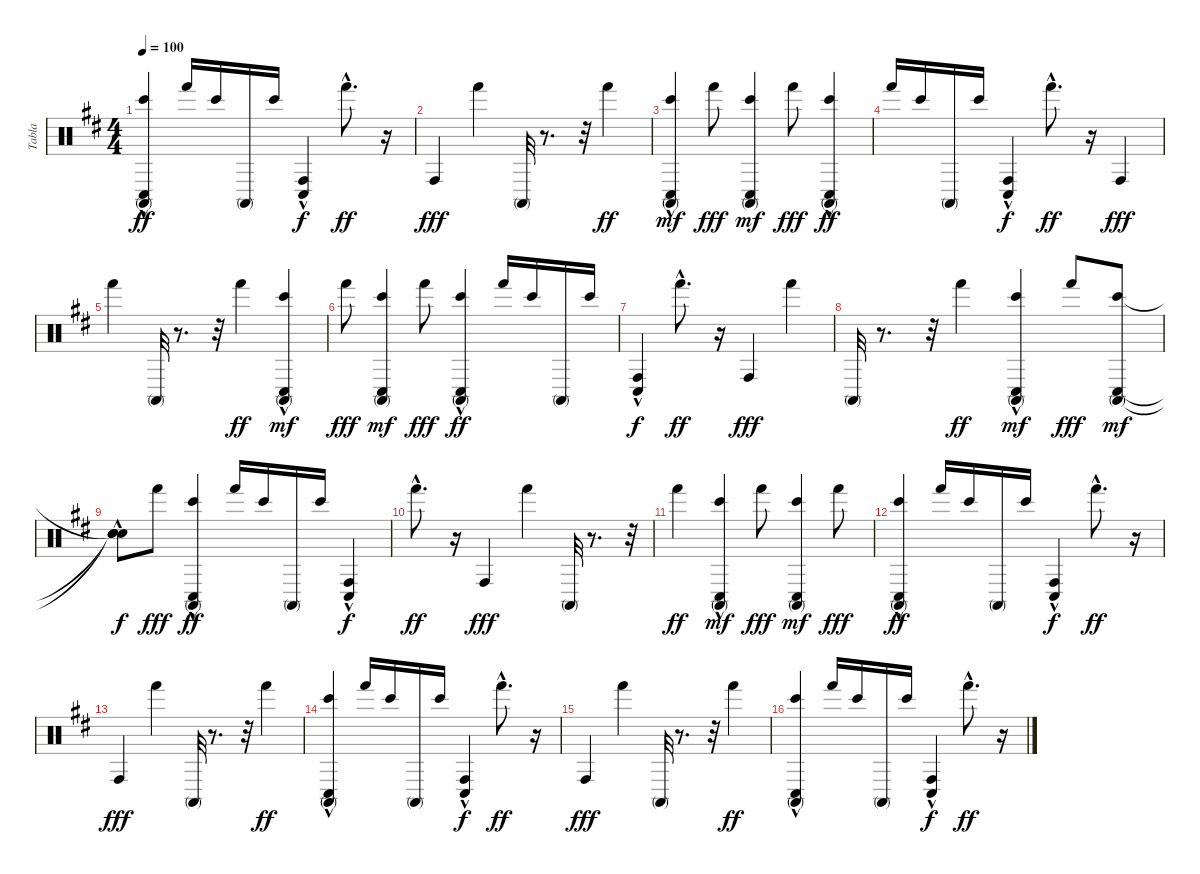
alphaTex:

\track ("Tabla" "Tabla") {instrument percussion}
\staff {score}
\articulation defaults
\ts (4 4)
\tempo 100
\clef neutral
\ks d
("Conga high (mute)" "Bongo High (hit)" "Conga low (hit)"{hac}).4{dy ff} "Hand (hit)".16 "Bongo High (hit)".16 "Conga high (mute)".16 "Bongo High (hit)".16 ("Conga low (hit)"{hac} "Conga high (hit)"{hac}).4{dy f} "Hand (hit)"{hac}.8{d dy ff} r.16 |
"Conga high (hit)".4{dy fff} "Hand (hit)".4 "Conga high (mute)".32 r.8{d} r.32 "Hand (hit)".4{dy ff} |
("Conga low (hit)"{hac} "Conga high (mute)" "Bongo High (hit)").4{dy mf} "Hand (hit)".8{dy fff} ("Conga low (hit)" "Conga high (mute)" "Bongo High (hit)").4{dy mf} "Hand (hit)".8{dy fff} ("Conga high (mute)" "Bongo High (hit)" "Conga low (hit)"{hac}).4{dy ff} |
"Hand (hit)".16 "Bongo High (hit)".16 "Conga high (mute)".16 "Bongo High (hit)".16 ("Conga low (hit)"{hac} "Conga high (hit)"{hac}).4{dy f} "Hand (hit)"{hac}.8{d dy ff} r.16 "Conga high (hit)".4{dy fff} |
"Hand (hit)".4 "Conga high (mute)".32 r.8{d} r.32 "Hand (hit)".4{dy ff} ("Conga low (hit)"{hac} "Conga high (mute)" "Bongo High (hit)").4{dy mf} |
"Hand (hit)".8{dy fff} ("Conga low (hit)" "Conga high (mute)" "Bongo High (hit)").4{dy mf} "Hand (hit)".8{dy fff} ("Conga high (mute)" "Bongo High (hit)" "Conga low (hit)"{hac}).4{dy ff} "Hand (hit)".16 "Bongo High (hit)".16 "Conga high (mute)".16 "Bongo High (hit)".16 |
("Conga low (hit)"{hac} "Conga high (hit)"{hac}).4{dy f} "Hand (hit)"{hac}.8{d dy ff} r.16 "Conga high (hit)".4{dy fff} "Hand (hit)".4 |
"Conga high (mute)".32 r.8{d} r.32 "Hand (hit)".4{dy ff} ("Conga low (hit)"{hac} "Conga high (mute)" "Bongo High (hit)").4{dy mf} "Hand (hit)".8{dy fff} ("Conga low (hit)" "Conga high (mute)" "Bongo High (hit)").8{dy mf} |
("Snare (hit)"{hac t} "Snare (hit)"{t} "Snare (hit)"{t}).8{dy f} "Hand (hit)".8{dy fff} ("Conga high (mute)" "Bongo High (hit)" "Conga low (hit)"{hac}).4{dy ff} "Hand (hit)".16 "Bongo High (hit)".16 "Conga high (mute)".16 "Bongo High (hit)".16 ("Conga low (hit)"{hac} "Conga high (hit)"{hac}).4{dy f} |
"Hand (hit)"{hac}.8{d dy ff} r.16 "Conga high (hit)".4{dy fff} "Hand (hit)".4 "Conga high (mute)".32 r.8{d} r.32 |
"Hand (hit)".4{dy ff} ("Conga low (hit)"{hac} "Conga high (mute)" "Bongo High (hit)").4{dy mf} "Hand (hit)".8{dy fff} ("Conga low (hit)" "Conga high (mute)" "Bongo High (hit)").4{dy mf} "Hand (hit)".8{dy fff} |
("Conga high (mute)" "Bongo High (hit)" "Conga low (hit)"{hac}).4{dy ff} "Hand (hit)".16 "Bongo High (hit)".16 "Conga high (mute)".16 "Bongo High (hit)".16 ("Conga low (hit)"{hac} "Conga high (hit)"{hac}).4{dy f} "Hand (hit)"{hac}.8{d dy ff} r.16 |
"Conga high (hit)".4{dy fff} "Hand (hit)".4 "Conga high (mute)".32 r.8{d} r.32 "Hand (hit)".4{dy ff} |
("Conga high (mute)" "Bongo High (hit)" "Conga low (hit)"{hac}).4 "Hand (hit)".16 "Bongo High (hit)".16 "Conga high (mute)".16 "Bongo High (hit)".16 ("Conga low (hit)"{hac} "Conga high (hit)"{hac}).4{dy f} "Hand (hit)"{hac}.8{d dy ff} r.16 |
"Conga high (hit)".4{dy fff} "Hand (hit)".4 "Conga high (mute)".32 r.8{d} r.32 "Hand (hit)".4{dy ff} |
("Conga high (mute)" "Bongo High (hit)" "Conga low (hit)"{hac}).4 "Hand (hit)".16 "Bongo High (hit)".16 "Conga high (mute)".16 "Bongo High (hit)".16 ("Conga low (hit)"{hac} "Conga high (hit)"{hac}).4{dy f} "Hand (hit)"{hac}.8{d dy ff} r.16
